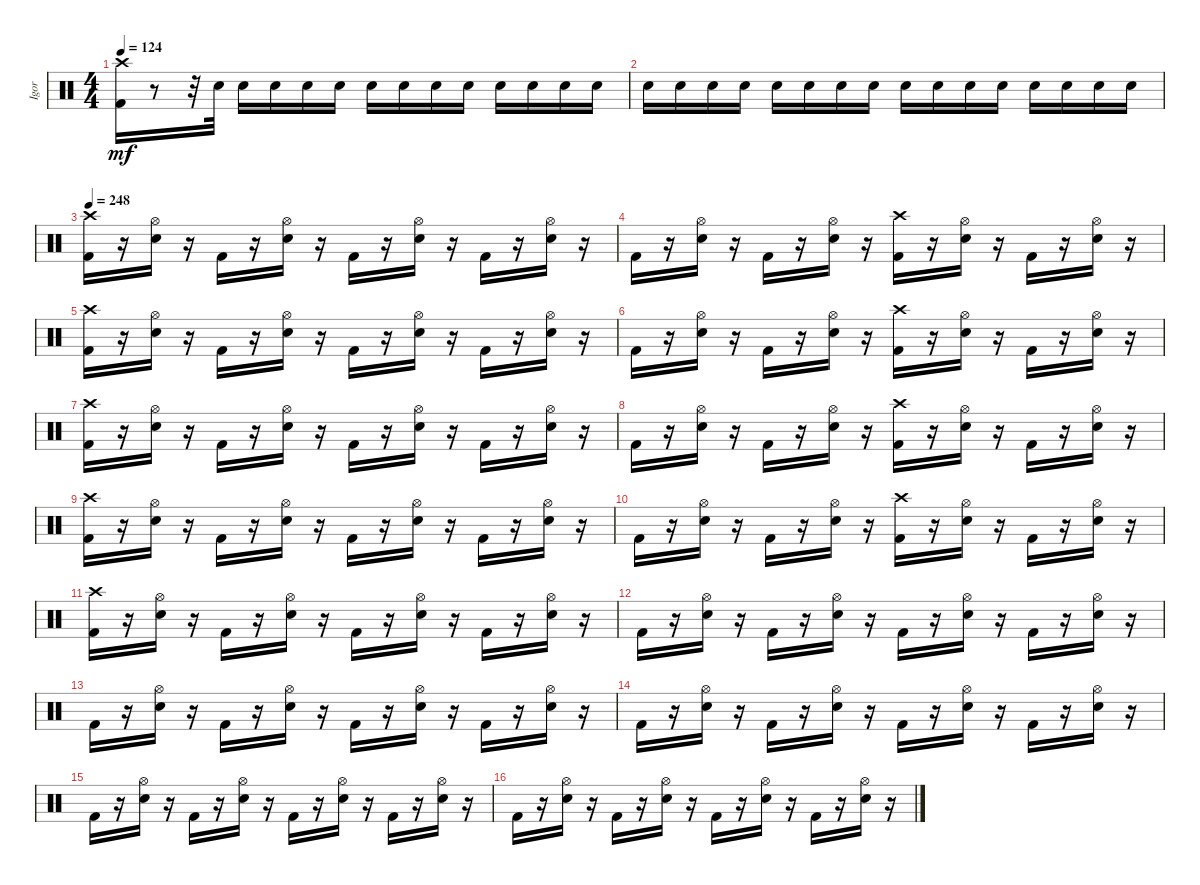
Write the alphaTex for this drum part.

\track ("Igor" "Igor") {instrument percussion}
\staff {score}
\articulation defaults
\ts (4 4)
\tempo 124
\clef neutral
\ks c
("Crash high (hit)" "Kick (hit) 2").16{dy mf} r.8 r.32 "Snare (hit) 2".32 "Snare (hit) 2".16 "Snare (hit) 2".16 "Snare (hit) 2".16 "Snare (hit) 2".16 "Snare (hit) 2".16 "Snare (hit) 2".16 "Snare (hit) 2".16 "Snare (hit) 2".16 "Snare (hit) 2".16 "Snare (hit) 2".16 "Snare (hit) 2".16 "Snare (hit) 2".16 |
"Snare (hit) 2".16 "Snare (hit) 2".16 "Snare (hit) 2".16 "Snare (hit) 2".16 "Snare (hit) 2".16 "Snare (hit) 2".16 "Snare (hit) 2".16 "Snare (hit) 2".16 "Snare (hit) 2".16 "Snare (hit) 2".16 "Snare (hit) 2".16 "Snare (hit) 2".16 "Snare (hit) 2".16 "Snare (hit) 2".16 "Snare (hit) 2".16 "Snare (hit) 2".16 |
\tempo 248
("Kick (hit) 2" "Crash high (hit)").16 r.16 ("Snare (hit) 2" "Hi-Hat (open)").16 r.16 "Kick (hit) 2".16 r.16 ("Snare (hit) 2" "Hi-Hat (open)").16 r.16 "Kick (hit) 2".16 r.16 ("Snare (hit) 2" "Hi-Hat (open)").16 r.16 "Kick (hit) 2".16 r.16 ("Snare (hit) 2" "Hi-Hat (open)").16 r.16 |
"Kick (hit) 2".16 r.16 ("Snare (hit) 2" "Hi-Hat (open)").16 r.16 "Kick (hit) 2".16 r.16 ("Snare (hit) 2" "Hi-Hat (open)").16 r.16 ("Kick (hit) 2" "Crash high (hit)").16 r.16 ("Snare (hit) 2" "Hi-Hat (open)").16 r.16 "Kick (hit) 2".16 r.16 ("Snare (hit) 2" "Hi-Hat (open)").16 r.16 |
("Kick (hit) 2" "Crash high (hit)").16 r.16 ("Snare (hit) 2" "Hi-Hat (open)").16 r.16 "Kick (hit) 2".16 r.16 ("Snare (hit) 2" "Hi-Hat (open)").16 r.16 "Kick (hit) 2".16 r.16 ("Snare (hit) 2" "Hi-Hat (open)").16 r.16 "Kick (hit) 2".16 r.16 ("Snare (hit) 2" "Hi-Hat (open)").16 r.16 |
"Kick (hit) 2".16 r.16 ("Snare (hit) 2" "Hi-Hat (open)").16 r.16 "Kick (hit) 2".16 r.16 ("Snare (hit) 2" "Hi-Hat (open)").16 r.16 ("Kick (hit) 2" "Crash high (hit)").16 r.16 ("Snare (hit) 2" "Hi-Hat (open)").16 r.16 "Kick (hit) 2".16 r.16 ("Snare (hit) 2" "Hi-Hat (open)").16 r.16 |
("Kick (hit) 2" "Crash high (hit)").16 r.16 ("Snare (hit) 2" "Hi-Hat (open)").16 r.16 "Kick (hit) 2".16 r.16 ("Snare (hit) 2" "Hi-Hat (open)").16 r.16 "Kick (hit) 2".16 r.16 ("Snare (hit) 2" "Hi-Hat (open)").16 r.16 "Kick (hit) 2".16 r.16 ("Snare (hit) 2" "Hi-Hat (open)").16 r.16 |
"Kick (hit) 2".16 r.16 ("Snare (hit) 2" "Hi-Hat (open)").16 r.16 "Kick (hit) 2".16 r.16 ("Snare (hit) 2" "Hi-Hat (open)").16 r.16 ("Kick (hit) 2" "Crash high (hit)").16 r.16 ("Snare (hit) 2" "Hi-Hat (open)").16 r.16 "Kick (hit) 2".16 r.16 ("Snare (hit) 2" "Hi-Hat (open)").16 r.16 |
("Kick (hit) 2" "Crash high (hit)").16 r.16 ("Snare (hit) 2" "Hi-Hat (open)").16 r.16 "Kick (hit) 2".16 r.16 ("Snare (hit) 2" "Hi-Hat (open)").16 r.16 "Kick (hit) 2".16 r.16 ("Snare (hit) 2" "Hi-Hat (open)").16 r.16 "Kick (hit) 2".16 r.16 ("Snare (hit) 2" "Hi-Hat (open)").16 r.16 |
"Kick (hit) 2".16 r.16 ("Snare (hit) 2" "Hi-Hat (open)").16 r.16 "Kick (hit) 2".16 r.16 ("Snare (hit) 2" "Hi-Hat (open)").16 r.16 ("Kick (hit) 2" "Crash high (hit)").16 r.16 ("Snare (hit) 2" "Hi-Hat (open)").16 r.16 "Kick (hit) 2".16 r.16 ("Snare (hit) 2" "Hi-Hat (open)").16 r.16 |
("Kick (hit) 2" "Crash high (hit)").16 r.16 ("Snare (hit) 2" "Hi-Hat (open)").16 r.16 "Kick (hit) 2".16 r.16 ("Snare (hit) 2" "Hi-Hat (open)").16 r.16 "Kick (hit) 2".16 r.16 ("Snare (hit) 2" "Hi-Hat (open)").16 r.16 "Kick (hit) 2".16 r.16 ("Snare (hit) 2" "Hi-Hat (open)").16 r.16 |
"Kick (hit) 2".16 r.16 ("Snare (hit) 2" "Hi-Hat (open)").16 r.16 "Kick (hit) 2".16 r.16 ("Snare (hit) 2" "Hi-Hat (open)").16 r.16 "Kick (hit) 2".16 r.16 ("Snare (hit) 2" "Hi-Hat (open)").16 r.16 "Kick (hit) 2".16 r.16 ("Snare (hit) 2" "Hi-Hat (open)").16 r.16 |
"Kick (hit) 2".16 r.16 ("Snare (hit) 2" "Hi-Hat (open)").16 r.16 "Kick (hit) 2".16 r.16 ("Snare (hit) 2" "Hi-Hat (open)").16 r.16 "Kick (hit) 2".16 r.16 ("Snare (hit) 2" "Hi-Hat (open)").16 r.16 "Kick (hit) 2".16 r.16 ("Snare (hit) 2" "Hi-Hat (open)").16 r.16 |
"Kick (hit) 2".16 r.16 ("Snare (hit) 2" "Hi-Hat (open)").16 r.16 "Kick (hit) 2".16 r.16 ("Snare (hit) 2" "Hi-Hat (open)").16 r.16 "Kick (hit) 2".16 r.16 ("Snare (hit) 2" "Hi-Hat (open)").16 r.16 "Kick (hit) 2".16 r.16 ("Snare (hit) 2" "Hi-Hat (open)").16 r.16 |
"Kick (hit) 2".16 r.16 ("Snare (hit) 2" "Hi-Hat (open)").16 r.16 "Kick (hit) 2".16 r.16 ("Snare (hit) 2" "Hi-Hat (open)").16 r.16 "Kick (hit) 2".16 r.16 ("Snare (hit) 2" "Hi-Hat (open)").16 r.16 "Kick (hit) 2".16 r.16 ("Snare (hit) 2" "Hi-Hat (open)").16 r.16 |
"Kick (hit) 2".16 r.16 ("Snare (hit) 2" "Hi-Hat (open)").16 r.16 "Kick (hit) 2".16 r.16 ("Snare (hit) 2" "Hi-Hat (open)").16 r.16 "Kick (hit) 2".16 r.16 ("Snare (hit) 2" "Hi-Hat (open)").16 r.16 "Kick (hit) 2".16 r.16 ("Snare (hit) 2" "Hi-Hat (open)").16 r.16
